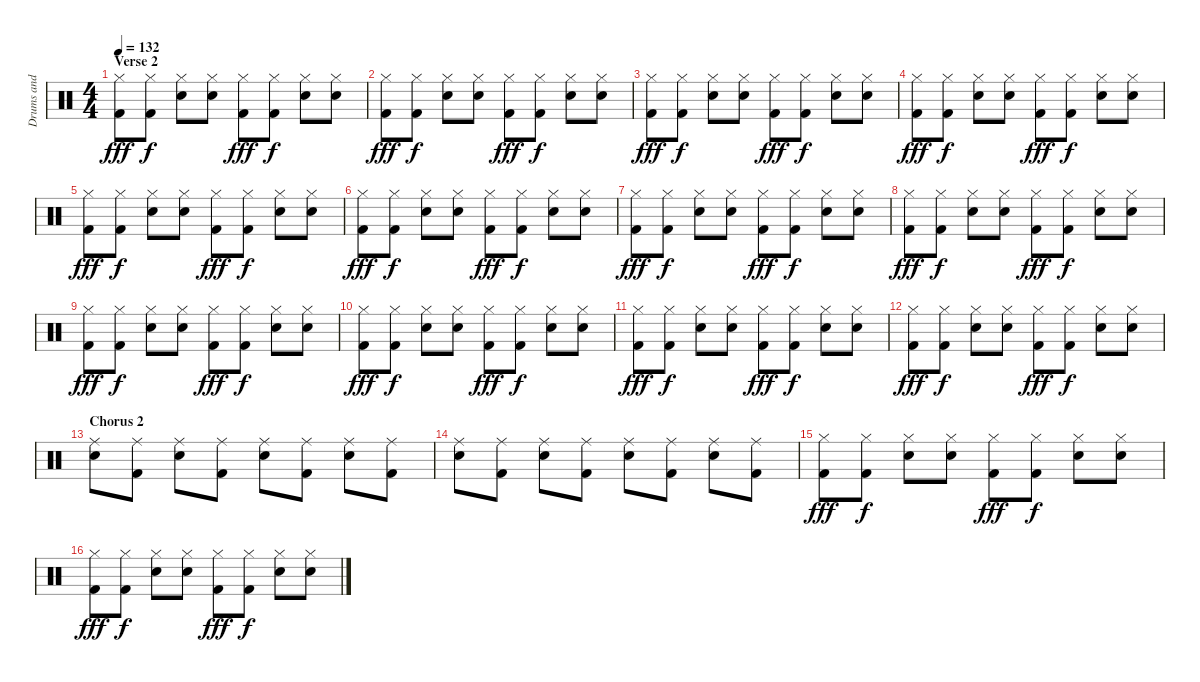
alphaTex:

\track ("Drums and Percussion" "Drums and ") {instrument percussion}
\staff {score}
\articulation defaults
\ts (4 4)
\section ("" "Verse 2")
\tempo 132
\clef neutral
\ks c
("Hi-Hat (closed)" "Kick (hit) 2").8{dy fff} ("Hi-Hat (closed)" "Kick (hit) 2").8{dy f} ("Hi-Hat (closed)" "Hand Clap (hit)").8 ("Hi-Hat (closed)" "Hand Clap (hit)").8 ("Hi-Hat (closed)" "Kick (hit) 2").8{dy fff} ("Hi-Hat (closed)" "Kick (hit) 2").8{dy f} ("Hi-Hat (closed)" "Hand Clap (hit)").8 ("Hi-Hat (closed)" "Hand Clap (hit)").8 |
("Hi-Hat (closed)" "Kick (hit) 2").8{dy fff} ("Hi-Hat (closed)" "Kick (hit) 2").8{dy f} ("Hi-Hat (closed)" "Hand Clap (hit)").8 ("Hi-Hat (closed)" "Hand Clap (hit)").8 ("Hi-Hat (closed)" "Kick (hit) 2").8{dy fff} ("Hi-Hat (closed)" "Kick (hit) 2").8{dy f} ("Hi-Hat (closed)" "Hand Clap (hit)").8 ("Hi-Hat (closed)" "Hand Clap (hit)").8 |
("Hi-Hat (closed)" "Kick (hit) 2").8{dy fff} ("Hi-Hat (closed)" "Kick (hit) 2").8{dy f} ("Hi-Hat (closed)" "Hand Clap (hit)").8 ("Hi-Hat (closed)" "Hand Clap (hit)").8 ("Hi-Hat (closed)" "Kick (hit) 2").8{dy fff} ("Hi-Hat (closed)" "Kick (hit) 2").8{dy f} ("Hi-Hat (closed)" "Hand Clap (hit)").8 ("Hi-Hat (closed)" "Hand Clap (hit)").8 |
("Hi-Hat (closed)" "Kick (hit) 2").8{dy fff} ("Hi-Hat (closed)" "Kick (hit) 2").8{dy f} ("Hi-Hat (closed)" "Hand Clap (hit)").8 ("Hi-Hat (closed)" "Hand Clap (hit)").8 ("Hi-Hat (closed)" "Kick (hit) 2").8{dy fff} ("Hi-Hat (closed)" "Kick (hit) 2").8{dy f} ("Hi-Hat (closed)" "Hand Clap (hit)").8 ("Hi-Hat (closed)" "Hand Clap (hit)").8 |
("Hi-Hat (closed)" "Kick (hit) 2").8{dy fff} ("Hi-Hat (closed)" "Kick (hit) 2").8{dy f} ("Hi-Hat (closed)" "Hand Clap (hit)").8 ("Hi-Hat (closed)" "Hand Clap (hit)").8 ("Hi-Hat (closed)" "Kick (hit) 2").8{dy fff} ("Hi-Hat (closed)" "Kick (hit) 2").8{dy f} ("Hi-Hat (closed)" "Hand Clap (hit)").8 ("Hi-Hat (closed)" "Hand Clap (hit)").8 |
("Hi-Hat (closed)" "Kick (hit) 2").8{dy fff} ("Hi-Hat (closed)" "Kick (hit) 2").8{dy f} ("Hi-Hat (closed)" "Hand Clap (hit)").8 ("Hi-Hat (closed)" "Hand Clap (hit)").8 ("Hi-Hat (closed)" "Kick (hit) 2").8{dy fff} ("Hi-Hat (closed)" "Kick (hit) 2").8{dy f} ("Hi-Hat (closed)" "Hand Clap (hit)").8 ("Hi-Hat (closed)" "Hand Clap (hit)").8 |
("Hi-Hat (closed)" "Kick (hit) 2").8{dy fff} ("Hi-Hat (closed)" "Kick (hit) 2").8{dy f} ("Hi-Hat (closed)" "Hand Clap (hit)").8 ("Hi-Hat (closed)" "Hand Clap (hit)").8 ("Hi-Hat (closed)" "Kick (hit) 2").8{dy fff} ("Hi-Hat (closed)" "Kick (hit) 2").8{dy f} ("Hi-Hat (closed)" "Hand Clap (hit)").8 ("Hi-Hat (closed)" "Hand Clap (hit)").8 |
("Hi-Hat (closed)" "Kick (hit) 2").8{dy fff} ("Hi-Hat (closed)" "Kick (hit) 2").8{dy f} ("Hi-Hat (closed)" "Hand Clap (hit)").8 ("Hi-Hat (closed)" "Hand Clap (hit)").8 ("Hi-Hat (closed)" "Kick (hit) 2").8{dy fff} ("Hi-Hat (closed)" "Kick (hit) 2").8{dy f} ("Hi-Hat (closed)" "Hand Clap (hit)").8 ("Hi-Hat (closed)" "Hand Clap (hit)").8 |
("Hi-Hat (closed)" "Kick (hit) 2").8{dy fff} ("Hi-Hat (closed)" "Kick (hit) 2").8{dy f} ("Hi-Hat (closed)" "Hand Clap (hit)").8 ("Hi-Hat (closed)" "Hand Clap (hit)").8 ("Hi-Hat (closed)" "Kick (hit) 2").8{dy fff} ("Hi-Hat (closed)" "Kick (hit) 2").8{dy f} ("Hi-Hat (closed)" "Hand Clap (hit)").8 ("Hi-Hat (closed)" "Hand Clap (hit)").8 |
("Hi-Hat (closed)" "Kick (hit) 2").8{dy fff} ("Hi-Hat (closed)" "Kick (hit) 2").8{dy f} ("Hi-Hat (closed)" "Hand Clap (hit)").8 ("Hi-Hat (closed)" "Hand Clap (hit)").8 ("Hi-Hat (closed)" "Kick (hit) 2").8{dy fff} ("Hi-Hat (closed)" "Kick (hit) 2").8{dy f} ("Hi-Hat (closed)" "Hand Clap (hit)").8 ("Hi-Hat (closed)" "Hand Clap (hit)").8 |
("Hi-Hat (closed)" "Kick (hit) 2").8{dy fff} ("Hi-Hat (closed)" "Kick (hit) 2").8{dy f} ("Hi-Hat (closed)" "Hand Clap (hit)").8 ("Hi-Hat (closed)" "Hand Clap (hit)").8 ("Hi-Hat (closed)" "Kick (hit) 2").8{dy fff} ("Hi-Hat (closed)" "Kick (hit) 2").8{dy f} ("Hi-Hat (closed)" "Hand Clap (hit)").8 ("Hi-Hat (closed)" "Hand Clap (hit)").8 |
("Hi-Hat (closed)" "Kick (hit) 2").8{dy fff} ("Hi-Hat (closed)" "Kick (hit) 2").8{dy f} ("Hi-Hat (closed)" "Hand Clap (hit)").8 ("Hi-Hat (closed)" "Hand Clap (hit)").8 ("Hi-Hat (closed)" "Kick (hit) 2").8{dy fff} ("Hi-Hat (closed)" "Kick (hit) 2").8{dy f} ("Hi-Hat (closed)" "Hand Clap (hit)").8 ("Hi-Hat (closed)" "Hand Clap (hit)").8 |
\section ("" "Chorus 2")
("Ride (middle)" "Electric Snare (hit)").8 ("Ride (middle)" "Kick (hit) 2").8 ("Ride (middle)" "Electric Snare (hit)").8 ("Ride (middle)" "Kick (hit) 2").8 ("Ride (middle)" "Electric Snare (hit)").8 ("Ride (middle)" "Kick (hit) 2").8 ("Ride (middle)" "Electric Snare (hit)").8 ("Ride (middle)" "Kick (hit) 2").8 |
("Ride (middle)" "Electric Snare (hit)").8 ("Ride (middle)" "Kick (hit) 2").8 ("Ride (middle)" "Electric Snare (hit)").8 ("Ride (middle)" "Kick (hit) 2").8 ("Ride (middle)" "Electric Snare (hit)").8 ("Ride (middle)" "Kick (hit) 2").8 ("Ride (middle)" "Electric Snare (hit)").8 ("Ride (middle)" "Kick (hit) 2").8 |
("Hi-Hat (closed)" "Kick (hit) 2").8{dy fff} ("Hi-Hat (closed)" "Kick (hit) 2").8{dy f} ("Hi-Hat (closed)" "Hand Clap (hit)").8 ("Hi-Hat (closed)" "Hand Clap (hit)").8 ("Hi-Hat (closed)" "Kick (hit) 2").8{dy fff} ("Hi-Hat (closed)" "Kick (hit) 2").8{dy f} ("Hi-Hat (closed)" "Hand Clap (hit)").8 ("Hi-Hat (closed)" "Hand Clap (hit)").8 |
("Hi-Hat (closed)" "Kick (hit) 2").8{dy fff} ("Hi-Hat (closed)" "Kick (hit) 2").8{dy f} ("Hi-Hat (closed)" "Hand Clap (hit)").8 ("Hi-Hat (closed)" "Hand Clap (hit)").8 ("Hi-Hat (closed)" "Kick (hit) 2").8{dy fff} ("Hi-Hat (closed)" "Kick (hit) 2").8{dy f} ("Hi-Hat (closed)" "Hand Clap (hit)").8 ("Hi-Hat (closed)" "Hand Clap (hit)").8
